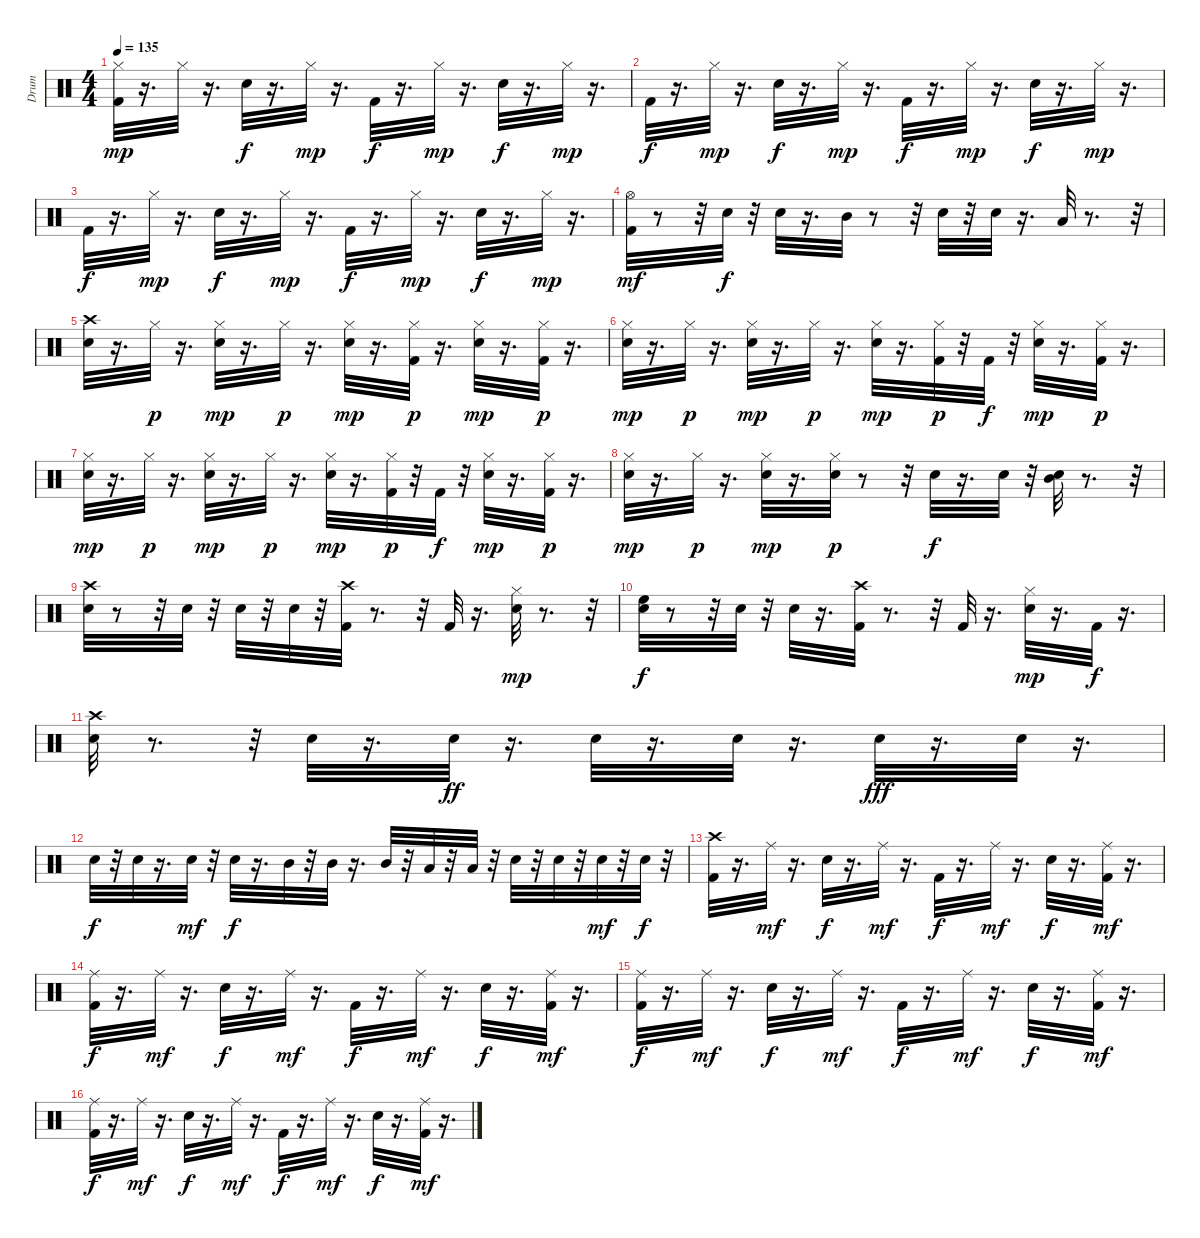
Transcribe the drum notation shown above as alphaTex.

\track ("Drum" "Drum") {instrument percussion}
\staff {score}
\articulation defaults
\ts (4 4)
\tempo 135
\clef neutral
\ks c
("Kick (hit) 2" "Hi-Hat (closed)").32{dy mp} r.16{d} "Hi-Hat (closed)".32 r.16{d} "Electric Snare (hit)".32{dy f} r.16{d} "Hi-Hat (closed)".32{dy mp} r.16{d} "Kick (hit) 2".32{dy f} r.16{d} "Hi-Hat (closed)".32{dy mp} r.16{d} "Electric Snare (hit)".32{dy f} r.16{d} "Hi-Hat (closed)".32{dy mp} r.16{d} |
"Kick (hit) 2".32{dy f} r.16{d} "Hi-Hat (closed)".32{dy mp} r.16{d} "Electric Snare (hit)".32{dy f} r.16{d} "Hi-Hat (closed)".32{dy mp} r.16{d} "Kick (hit) 2".32{dy f} r.16{d} "Hi-Hat (closed)".32{dy mp} r.16{d} "Electric Snare (hit)".32{dy f} r.16{d} "Hi-Hat (closed)".32{dy mp} r.16{d} |
"Kick (hit) 2".32{dy f} r.16{d} "Hi-Hat (closed)".32{dy mp} r.16{d} "Electric Snare (hit)".32{dy f} r.16{d} "Hi-Hat (closed)".32{dy mp} r.16{d} "Kick (hit) 2".32{dy f} r.16{d} "Hi-Hat (closed)".32{dy mp} r.16{d} "Electric Snare (hit)".32{dy f} r.16{d} "Hi-Hat (closed)".32{dy mp} r.16{d} |
("Hi-Hat (open)" "Kick (hit) 2").32{dy mf} r.8 r.32 "Electric Snare (hit)".32{dy f} r.32 "Electric Snare (hit)".32 r.16{d} "Mid Tom (hit)".32 r.8 r.32 "Electric Snare (hit)".32 r.32 "Electric Snare (hit)".32 r.16{d} "Low Tom (hit)".32 r.8{d} r.32 |
("Crash high (hit)" "Electric Snare (hit)").32 r.16{d} "Hi-Hat (closed)".32{dy p} r.16{d} ("Hi-Hat (closed)" "Electric Snare (hit)").32{dy mp} r.16{d} "Hi-Hat (closed)".32{dy p} r.16{d} ("Hi-Hat (closed)" "Electric Snare (hit)").32{dy mp} r.16{d} ("Hi-Hat (closed)" "Kick (hit) 2").32{dy p} r.16{d} ("Hi-Hat (closed)" "Electric Snare (hit)").32{dy mp} r.16{d} ("Hi-Hat (closed)" "Kick (hit) 2").32{dy p} r.16{d} |
("Electric Snare (hit)" "Hi-Hat (closed)").32{dy mp} r.16{d} "Hi-Hat (closed)".32{dy p} r.16{d} ("Hi-Hat (closed)" "Electric Snare (hit)").32{dy mp} r.16{d} "Hi-Hat (closed)".32{dy p} r.16{d} ("Hi-Hat (closed)" "Electric Snare (hit)").32{dy mp} r.16{d} ("Hi-Hat (closed)" "Kick (hit) 2").32{dy p} r.32 "Kick (hit) 2".32{dy f} r.32 ("Hi-Hat (closed)" "Electric Snare (hit)").32{dy mp} r.16{d} ("Hi-Hat (closed)" "Kick (hit) 2").32{dy p} r.16{d} |
("Electric Snare (hit)" "Hi-Hat (closed)").32{dy mp} r.16{d} "Hi-Hat (closed)".32{dy p} r.16{d} ("Hi-Hat (closed)" "Electric Snare (hit)").32{dy mp} r.16{d} "Hi-Hat (closed)".32{dy p} r.16{d} ("Hi-Hat (closed)" "Electric Snare (hit)").32{dy mp} r.16{d} ("Hi-Hat (closed)" "Kick (hit) 2").32{dy p} r.32 "Kick (hit) 2".32{dy f} r.32 ("Hi-Hat (closed)" "Electric Snare (hit)").32{dy mp} r.16{d} ("Hi-Hat (closed)" "Kick (hit) 2").32{dy p} r.16{d} |
("Electric Snare (hit)" "Hi-Hat (closed)").32{dy mp} r.16{d} "Hi-Hat (closed)".32{dy p} r.16{d} ("Hi-Hat (closed)" "Electric Snare (hit)").32{dy mp} r.16{d} ("Hi-Hat (closed)" "Electric Snare (hit)").32{dy p} r.8 r.32 "Electric Snare (hit)".32{dy f} r.16{d} "Electric Snare (hit)".32 r.32 ("Mid Tom (hit)" "Electric Snare (hit)").32 r.8{d} r.32 |
("Crash high (hit)" "Electric Snare (hit)").32 r.8 r.32 "Electric Snare (hit)".32 r.32 "Electric Snare (hit)".32 r.32 "Electric Snare (hit)".32 r.32 ("Crash high (hit)" "Kick (hit) 2").32 r.8{d} r.32 "Kick (hit) 2".32 r.16{d} ("Electric Snare (hit)" "Hi-Hat (closed)").32{dy mp} r.8{d} r.32 |
("Electric Snare (hit)" "High Floor Tom (hit)").32{dy f} r.8 r.32 "Electric Snare (hit)".32 r.32 "Electric Snare (hit)".32 r.16{d} ("Crash high (hit)" "Kick (hit) 2").32 r.8{d} r.32 "Kick (hit) 2".32 r.16{d} ("Hi-Hat (closed)" "Electric Snare (hit)").32{dy mp} r.16{d} "Kick (hit) 2".32{dy f} r.16{d} |
("Electric Snare (hit)" "Crash high (hit)").32 r.8{d} r.32 "Electric Snare (hit)".32 r.16{d} "Electric Snare (hit)".32{dy ff} r.16{d} "Electric Snare (hit)".32 r.16{d} "Electric Snare (hit)".32 r.16{d} "Electric Snare (hit)".32{dy fff} r.16{d} "Electric Snare (hit)".32 r.16{d} |
"Electric Snare (hit)".32{dy f} r.32 "Electric Snare (hit)".32 r.16{d} "Electric Snare (hit)".32{dy mf} r.32 "Electric Snare (hit)".32{dy f} r.16{d} "Mid Tom (hit)".32 r.32 "Mid Tom (hit)".32 r.16{d} "Mid Tom (hit)".32 r.32 "Low Tom (hit)".32 r.32 "Low Tom (hit)".32 r.32 "Electric Snare (hit)".32 r.32 "Electric Snare (hit)".32 r.32 "Electric Snare (hit)".32{dy mf} r.32 "Electric Snare (hit)".32{dy f} r.32 |
("Crash high (hit)" "Kick (hit) 2").32 r.16{d} "Ride (middle)".32{dy mf} r.16{d} "Electric Snare (hit)".32{dy f} r.16{d} "Ride (middle)".32{dy mf} r.16{d} "Kick (hit) 2".32{dy f} r.16{d} "Ride (middle)".32{dy mf} r.16{d} "Electric Snare (hit)".32{dy f} r.16{d} ("Ride (middle)" "Kick (hit) 2").32{dy mf} r.16{d} |
("Ride (middle)" "Kick (hit) 2").32{dy f} r.16{d} "Ride (middle)".32{dy mf} r.16{d} "Electric Snare (hit)".32{dy f} r.16{d} "Ride (middle)".32{dy mf} r.16{d} "Kick (hit) 2".32{dy f} r.16{d} "Ride (middle)".32{dy mf} r.16{d} "Electric Snare (hit)".32{dy f} r.16{d} ("Ride (middle)" "Kick (hit) 2").32{dy mf} r.16{d} |
("Ride (middle)" "Kick (hit) 2").32{dy f} r.16{d} "Ride (middle)".32{dy mf} r.16{d} "Electric Snare (hit)".32{dy f} r.16{d} "Ride (middle)".32{dy mf} r.16{d} "Kick (hit) 2".32{dy f} r.16{d} "Ride (middle)".32{dy mf} r.16{d} "Electric Snare (hit)".32{dy f} r.16{d} ("Ride (middle)" "Kick (hit) 2").32{dy mf} r.16{d} |
("Ride (middle)" "Kick (hit) 2").32{dy f} r.16{d} "Ride (middle)".32{dy mf} r.16{d} "Electric Snare (hit)".32{dy f} r.16{d} "Ride (middle)".32{dy mf} r.16{d} "Kick (hit) 2".32{dy f} r.16{d} "Ride (middle)".32{dy mf} r.16{d} "Electric Snare (hit)".32{dy f} r.16{d} ("Ride (middle)" "Kick (hit) 2").32{dy mf} r.16{d}
